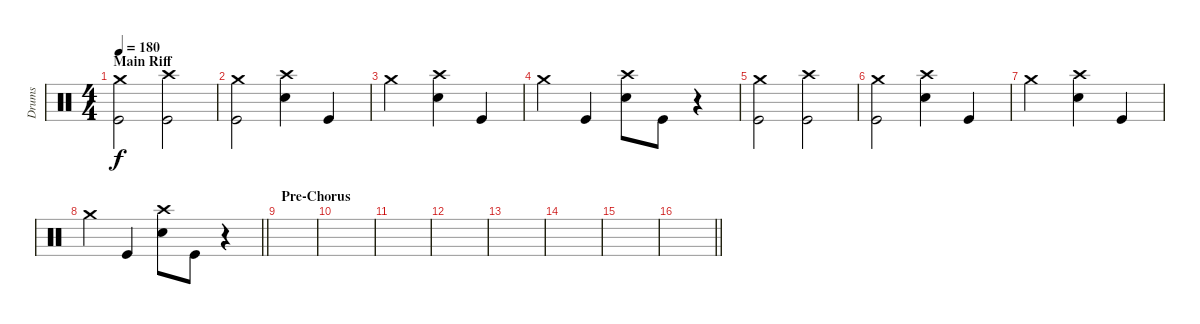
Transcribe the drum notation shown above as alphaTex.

\track ("Drums" "Drums") {instrument percussion}
\staff {score}
\articulation defaults
\ts (4 4)
\section ("" "Main Riff")
\tempo 180
\clef neutral
\ks c
("Crash medium (hit)" "Kick (hit)").2{dy f} ("Crash high (hit)" "Kick (hit)").2 |
("Crash medium (hit)" "Kick (hit)").2 ("Crash high (hit)" "Snare (hit) 2").4 "Kick (hit)".4 |
"Crash medium (hit)".2 ("Crash high (hit)" "Snare (hit) 2").4 "Kick (hit)".4 |
"Crash medium (hit)".4 "Kick (hit)".4 ("Crash high (hit)" "Snare (hit) 2").8 "Kick (hit)".8 r.4 |
("Crash medium (hit)" "Kick (hit)").2 ("Crash high (hit)" "Kick (hit)").2 |
("Crash medium (hit)" "Kick (hit)").2 ("Crash high (hit)" "Snare (hit) 2").4 "Kick (hit)".4 |
"Crash medium (hit)".2 ("Crash high (hit)" "Snare (hit) 2").4 "Kick (hit)".4 |
\barLineRight lightlight "Crash medium (hit)".4 "Kick (hit)".4
("Crash high (hit)" "Snare (hit) 2").8 "Kick (hit)".8 r.4 |
\section ("" "Pre-Chorus")
|
|
|
|
|
|
|
\barLineRight lightlight
